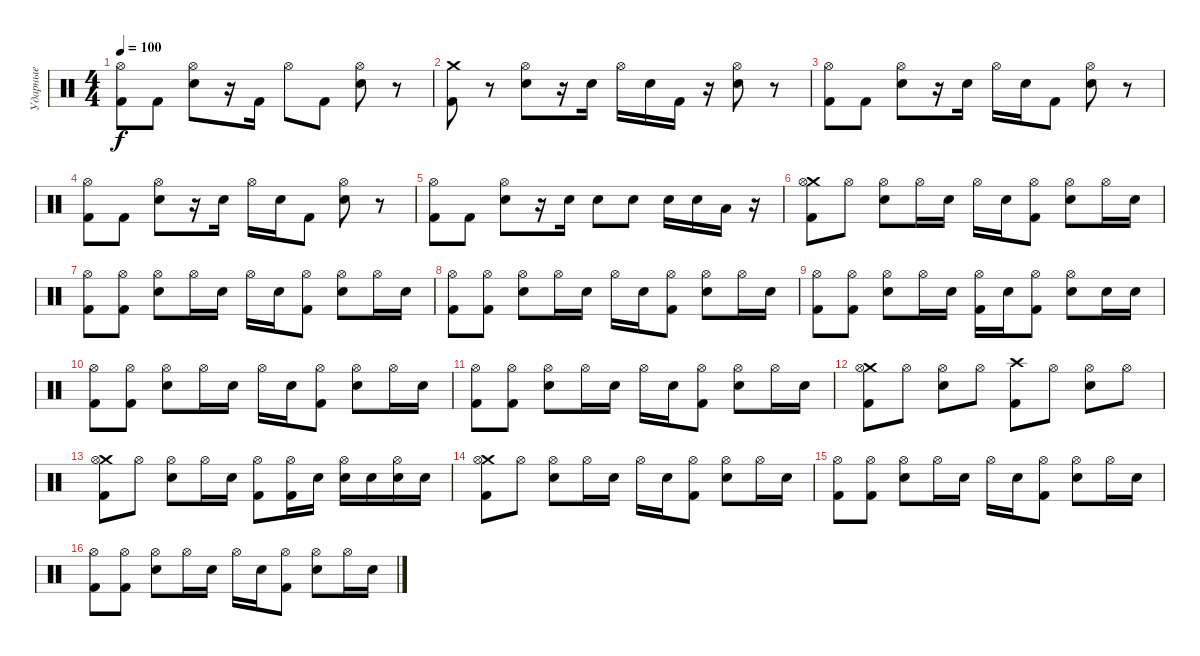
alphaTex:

\track ("Ударные" "Ударные") {instrument percussion}
\staff {score}
\articulation defaults
\ts (4 4)
\tempo 100
\clef neutral
\ks c
("Hi-Hat (open)" "Kick (hit) 2").8{dy f} "Kick (hit) 2".8 ("Hi-Hat (open)" "Electric Snare (hit)").8 r.16 "Kick (hit) 2".16 "Hi-Hat (open)".8 "Kick (hit) 2".8 ("Hi-Hat (open)" "Electric Snare (hit)").8 r.8 |
("Crash medium (hit)" "Kick (hit) 2").8 r.8 ("Hi-Hat (open)" "Electric Snare (hit)").8 r.16 "Electric Snare (hit)".16 "Hi-Hat (open)".16 "Electric Snare (hit)".16 "Kick (hit) 2".16 r.16 ("Hi-Hat (open)" "Electric Snare (hit)").8 r.8 |
("Hi-Hat (open)" "Kick (hit) 2").8 "Kick (hit) 2".8 ("Hi-Hat (open)" "Electric Snare (hit)").8 r.16 "Electric Snare (hit)".16 "Hi-Hat (open)".16 "Electric Snare (hit)".16 "Kick (hit) 2".8 ("Hi-Hat (open)" "Electric Snare (hit)").8 r.8 |
("Hi-Hat (open)" "Kick (hit) 2").8 "Kick (hit) 2".8 ("Hi-Hat (open)" "Electric Snare (hit)").8 r.16 "Electric Snare (hit)".16 "Hi-Hat (open)".16 "Electric Snare (hit)".16 "Kick (hit) 2".8 ("Hi-Hat (open)" "Electric Snare (hit)").8 r.8 |
("Hi-Hat (open)" "Kick (hit) 2").8 "Kick (hit) 2".8 ("Hi-Hat (open)" "Electric Snare (hit)").8 r.16 "Electric Snare (hit)".16 "Electric Snare (hit)".8 "Electric Snare (hit)".8 "Electric Snare (hit)".16 "Electric Snare (hit)".16 "Low Floor Tom (hit)".16 r.16 |
("Crash medium (hit)" "Hi-Hat (open)" "Kick (hit) 2").8 "Hi-Hat (open)".8 ("Hi-Hat (open)" "Electric Snare (hit)").8 "Hi-Hat (open)".16 "Electric Snare (hit)".16 "Hi-Hat (open)".16 "Electric Snare (hit)".16 ("Hi-Hat (open)" "Kick (hit) 2").8 ("Hi-Hat (open)" "Electric Snare (hit)").8 "Hi-Hat (open)".16 "Electric Snare (hit)".16 |
("Hi-Hat (open)" "Kick (hit) 2").8 ("Hi-Hat (open)" "Kick (hit) 2").8 ("Hi-Hat (open)" "Electric Snare (hit)").8 "Hi-Hat (open)".16 "Electric Snare (hit)".16 "Hi-Hat (open)".16 "Electric Snare (hit)".16 ("Hi-Hat (open)" "Kick (hit) 2").8 ("Hi-Hat (open)" "Electric Snare (hit)").8 "Hi-Hat (open)".16 "Electric Snare (hit)".16 |
("Hi-Hat (open)" "Kick (hit) 2").8 ("Hi-Hat (open)" "Kick (hit) 2").8 ("Hi-Hat (open)" "Electric Snare (hit)").8 "Hi-Hat (open)".16 "Electric Snare (hit)".16 "Hi-Hat (open)".16 "Electric Snare (hit)".16 ("Hi-Hat (open)" "Kick (hit) 2").8 ("Hi-Hat (open)" "Electric Snare (hit)").8 "Hi-Hat (open)".16 "Electric Snare (hit)".16 |
("Hi-Hat (open)" "Kick (hit) 2").8 ("Hi-Hat (open)" "Kick (hit) 2").8 ("Hi-Hat (open)" "Electric Snare (hit)").8 "Hi-Hat (open)".16 "Electric Snare (hit)".16 ("Hi-Hat (open)" "Kick (hit) 2").16 "Electric Snare (hit)".16 ("Hi-Hat (open)" "Kick (hit) 2").8 ("Hi-Hat (open)" "Electric Snare (hit)").8 "Electric Snare (hit)".16 "Electric Snare (hit)".16 |
("Hi-Hat (open)" "Kick (hit) 2").8 ("Hi-Hat (open)" "Kick (hit) 2").8 ("Hi-Hat (open)" "Electric Snare (hit)").8 "Hi-Hat (open)".16 "Electric Snare (hit)".16 "Hi-Hat (open)".16 "Electric Snare (hit)".16 ("Hi-Hat (open)" "Kick (hit) 2").8 ("Hi-Hat (open)" "Electric Snare (hit)").8 "Hi-Hat (open)".16 "Electric Snare (hit)".16 |
("Hi-Hat (open)" "Kick (hit) 2").8 ("Hi-Hat (open)" "Kick (hit) 2").8 ("Hi-Hat (open)" "Electric Snare (hit)").8 "Hi-Hat (open)".16 "Electric Snare (hit)".16 "Hi-Hat (open)".16 "Electric Snare (hit)".16 ("Hi-Hat (open)" "Kick (hit) 2").8 ("Hi-Hat (open)" "Electric Snare (hit)").8 "Hi-Hat (open)".16 "Electric Snare (hit)".16 |
("Crash medium (hit)" "Hi-Hat (open)" "Kick (hit) 2").8 "Hi-Hat (open)".8 ("Hi-Hat (open)" "Electric Snare (hit)").8 "Hi-Hat (open)".8 ("Crash high (hit)" "Kick (hit) 2").8 "Hi-Hat (open)".8 ("Hi-Hat (open)" "Electric Snare (hit)").8 "Hi-Hat (open)".8 |
("Crash medium (hit)" "Hi-Hat (open)" "Kick (hit) 2").8 "Hi-Hat (open)".8 ("Hi-Hat (open)" "Electric Snare (hit)").8 "Hi-Hat (open)".16 "Electric Snare (hit)".16 ("Hi-Hat (open)" "Kick (hit) 2").8 ("Hi-Hat (open)" "Kick (hit) 2").16 "Electric Snare (hit)".16 ("Hi-Hat (open)" "Electric Snare (hit)").16 "Electric Snare (hit)".16 ("Hi-Hat (open)" "Electric Snare (hit)").16 "Electric Snare (hit)".16 |
("Crash medium (hit)" "Hi-Hat (open)" "Kick (hit) 2").8 "Hi-Hat (open)".8 ("Hi-Hat (open)" "Electric Snare (hit)").8 "Hi-Hat (open)".16 "Electric Snare (hit)".16 "Hi-Hat (open)".16 "Electric Snare (hit)".16 ("Hi-Hat (open)" "Kick (hit) 2").8 ("Hi-Hat (open)" "Electric Snare (hit)").8 "Hi-Hat (open)".16 "Electric Snare (hit)".16 |
("Hi-Hat (open)" "Kick (hit) 2").8 ("Hi-Hat (open)" "Kick (hit) 2").8 ("Hi-Hat (open)" "Electric Snare (hit)").8 "Hi-Hat (open)".16 "Electric Snare (hit)".16 "Hi-Hat (open)".16 "Electric Snare (hit)".16 ("Hi-Hat (open)" "Kick (hit) 2").8 ("Hi-Hat (open)" "Electric Snare (hit)").8 "Hi-Hat (open)".16 "Electric Snare (hit)".16 |
("Hi-Hat (open)" "Kick (hit) 2").8 ("Hi-Hat (open)" "Kick (hit) 2").8 ("Hi-Hat (open)" "Electric Snare (hit)").8 "Hi-Hat (open)".16 "Electric Snare (hit)".16 "Hi-Hat (open)".16 "Electric Snare (hit)".16 ("Hi-Hat (open)" "Kick (hit) 2").8 ("Hi-Hat (open)" "Electric Snare (hit)").8 "Hi-Hat (open)".16 "Electric Snare (hit)".16
